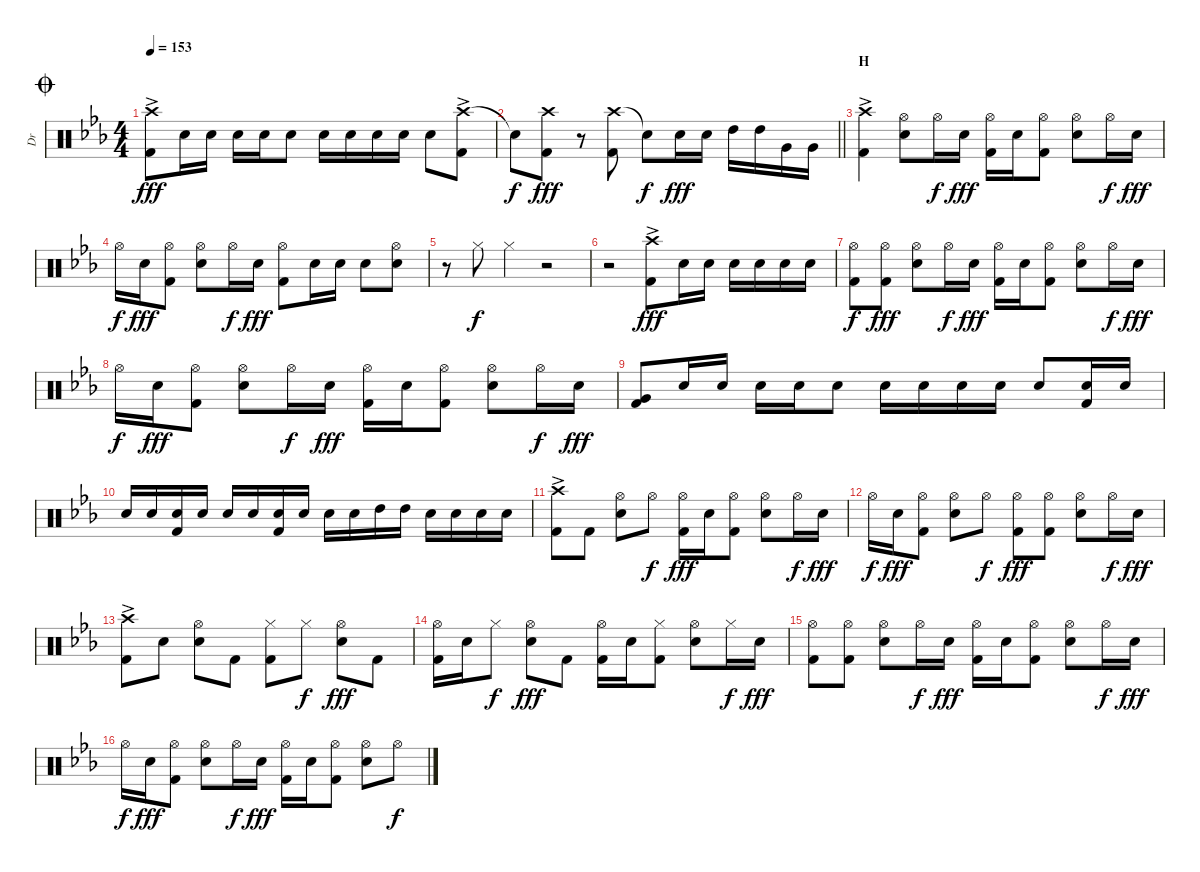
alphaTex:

\track ("Dr" "Dr") {instrument percussion}
\staff {score}
\articulation defaults
\ts (4 4)
\jump coda
\tempo 153
\clef neutral
\ks cminor
("Crash high (hit)"{ac} "Kick (hit) 2"{ac}).8{dy fff} "Electric Snare (hit)".16 "Electric Snare (hit)".16 "Electric Snare (hit)".16 "Electric Snare (hit)".16 "Electric Snare (hit)".8 "Electric Snare (hit)".16 "Electric Snare (hit)".16 "Electric Snare (hit)".16 "Electric Snare (hit)".16 "Electric Snare (hit)".8 ("Crash high (hit)"{ac} "Kick (hit) 2"{ac}).8 |
\barLineRight lightlight "Snare (hit)"{t}.8{dy f}
("Crash high (hit)" "Kick (hit) 2").8{dy fff} r.8 ("Crash high (hit)" "Kick (hit) 2").8 "Snare (hit)"{t}.8{dy f} "Electric Snare (hit)".16{dy fff} "Electric Snare (hit)".16 "High Tom (hit)".16 "High Tom (hit)".16 "Very Low Tom (hit)".16 "Very Low Tom (hit)".16 |
\section ("" "H")
("Crash high (hit)"{ac} "Kick (hit) 2"{ac}).4 ("Hi-Hat (open)" "Electric Snare (hit)").8 "Hi-Hat (open)".16{dy f} "Electric Snare (hit)".16{dy fff} ("Hi-Hat (open)" "Kick (hit) 2").16 "Electric Snare (hit)".16 ("Hi-Hat (open)" "Kick (hit) 2").8 ("Hi-Hat (open)" "Electric Snare (hit)").8 "Hi-Hat (open)".16{dy f} "Electric Snare (hit)".16{dy fff} |
"Hi-Hat (open)".16{dy f} "Electric Snare (hit)".16{dy fff} ("Hi-Hat (open)" "Kick (hit) 2").8 ("Hi-Hat (open)" "Electric Snare (hit)").8 "Hi-Hat (open)".16{dy f} "Electric Snare (hit)".16{dy fff} ("Hi-Hat (open)" "Kick (hit) 2").8 "Electric Snare (hit)".16 "Electric Snare (hit)".16 "Electric Snare (hit)".8 ("Hi-Hat (open)" "Electric Snare (hit)").8 |
r.8 "Hi-Hat (closed)".8{dy f} "Hi-Hat (closed)".4 r.2 |
r.2 ("Crash high (hit)"{ac} "Kick (hit) 2"{ac}).8{dy fff} "Electric Snare (hit)".16 "Electric Snare (hit)".16 "Electric Snare (hit)".16 "Electric Snare (hit)".16 "Electric Snare (hit)".16 "Electric Snare (hit)".16 |
("Hi-Hat (open)" "Kick (hit) 2").8{dy f} ("Hi-Hat (open)" "Kick (hit) 2").8{dy fff} ("Hi-Hat (open)" "Electric Snare (hit)").8 "Hi-Hat (open)".16{dy f} "Electric Snare (hit)".16{dy fff} ("Hi-Hat (open)" "Kick (hit) 2").16 "Electric Snare (hit)".16 ("Hi-Hat (open)" "Kick (hit) 2").8 ("Hi-Hat (open)" "Electric Snare (hit)").8 "Hi-Hat (open)".16{dy f} "Electric Snare (hit)".16{dy fff} |
"Hi-Hat (open)".16{dy f} "Electric Snare (hit)".16{dy fff} ("Hi-Hat (open)" "Kick (hit) 2").8 ("Hi-Hat (open)" "Electric Snare (hit)").8 "Hi-Hat (open)".16{dy f} "Electric Snare (hit)".16{dy fff} ("Hi-Hat (open)" "Kick (hit) 2").16 "Electric Snare (hit)".16 ("Hi-Hat (open)" "Kick (hit) 2").8 ("Hi-Hat (open)" "Electric Snare (hit)").8 "Hi-Hat (open)".16{dy f} "Electric Snare (hit)".16{dy fff} |
("Very Low Tom (hit)" "Kick (hit) 2").8 "Electric Snare (hit)".16 "Electric Snare (hit)".16 "Electric Snare (hit)".16 "Electric Snare (hit)".16 "Electric Snare (hit)".8 "Electric Snare (hit)".16 "Electric Snare (hit)".16 "Electric Snare (hit)".16 "Electric Snare (hit)".16 "Electric Snare (hit)".8 ("Electric Snare (hit)" "Kick (hit) 2").16 "Electric Snare (hit)".16 |
"Electric Snare (hit)".16 "Electric Snare (hit)".16 ("Electric Snare (hit)" "Kick (hit) 2").16 "Electric Snare (hit)".16 "Electric Snare (hit)".16 "Electric Snare (hit)".16 ("Electric Snare (hit)" "Kick (hit) 2").16 "Electric Snare (hit)".16 "Electric Snare (hit)".16 "Electric Snare (hit)".16 "High Tom (hit)".16 "High Tom (hit)".16 "Electric Snare (hit)".16 "Electric Snare (hit)".16 "Electric Snare (hit)".16 "Electric Snare (hit)".16 |
("Crash high (hit)"{ac} "Kick (hit) 2"{ac}).8 "Kick (hit) 2".8 ("Hi-Hat (open)" "Electric Snare (hit)").8 "Hi-Hat (open)".8{dy f} ("Hi-Hat (open)" "Kick (hit) 2").16{dy fff} "Electric Snare (hit)".16 ("Hi-Hat (open)" "Kick (hit) 2").8 ("Hi-Hat (open)" "Electric Snare (hit)").8 "Hi-Hat (open)".16{dy f} "Electric Snare (hit)".16{dy fff} |
"Hi-Hat (open)".16{dy f} "Electric Snare (hit)".16{dy fff} ("Hi-Hat (open)" "Kick (hit) 2").8 ("Hi-Hat (open)" "Electric Snare (hit)").8 "Hi-Hat (open)".8{dy f} ("Hi-Hat (open)" "Kick (hit) 2").8{dy fff} ("Hi-Hat (open)" "Kick (hit) 2").8 ("Hi-Hat (open)" "Electric Snare (hit)").8 "Hi-Hat (open)".16{dy f} "Electric Snare (hit)".16{dy fff} |
("Crash high (hit)"{ac} "Kick (hit) 2"{ac}).8 "Electric Snare (hit)".8 ("Hi-Hat (open)" "Electric Snare (hit)").8 "Kick (hit) 2".8 ("Hi-Hat (closed)" "Kick (hit) 2").8 "Hi-Hat (closed)".8{dy f} ("Hi-Hat (open)" "Electric Snare (hit)").8{dy fff} "Kick (hit) 2".8 |
("Hi-Hat (open)" "Kick (hit) 2").16 "Electric Snare (hit)".16 "Hi-Hat (closed)".8{dy f} ("Hi-Hat (open)" "Electric Snare (hit)").8{dy fff} "Kick (hit) 2".8 ("Hi-Hat (open)" "Kick (hit) 2").16 "Electric Snare (hit)".16 ("Hi-Hat (closed)" "Kick (hit) 2").8 ("Hi-Hat (open)" "Electric Snare (hit)").8 "Hi-Hat (closed)".16{dy f} "Electric Snare (hit)".16{dy fff} |
("Hi-Hat (open)" "Kick (hit) 2").8 ("Hi-Hat (open)" "Kick (hit) 2").8 ("Hi-Hat (open)" "Electric Snare (hit)").8 "Hi-Hat (open)".16{dy f} "Electric Snare (hit)".16{dy fff} ("Hi-Hat (open)" "Kick (hit) 2").16 "Electric Snare (hit)".16 ("Hi-Hat (open)" "Kick (hit) 2").8 ("Hi-Hat (open)" "Electric Snare (hit)").8 "Hi-Hat (open)".16{dy f} "Electric Snare (hit)".16{dy fff} |
"Hi-Hat (open)".16{dy f} "Electric Snare (hit)".16{dy fff} ("Hi-Hat (open)" "Kick (hit) 2").8 ("Hi-Hat (open)" "Electric Snare (hit)").8 "Hi-Hat (open)".16{dy f} "Electric Snare (hit)".16{dy fff} ("Hi-Hat (open)" "Kick (hit) 2").16 "Electric Snare (hit)".16 ("Hi-Hat (open)" "Kick (hit) 2").8 ("Hi-Hat (open)" "Electric Snare (hit)").8 "Hi-Hat (open)".8{dy f}
